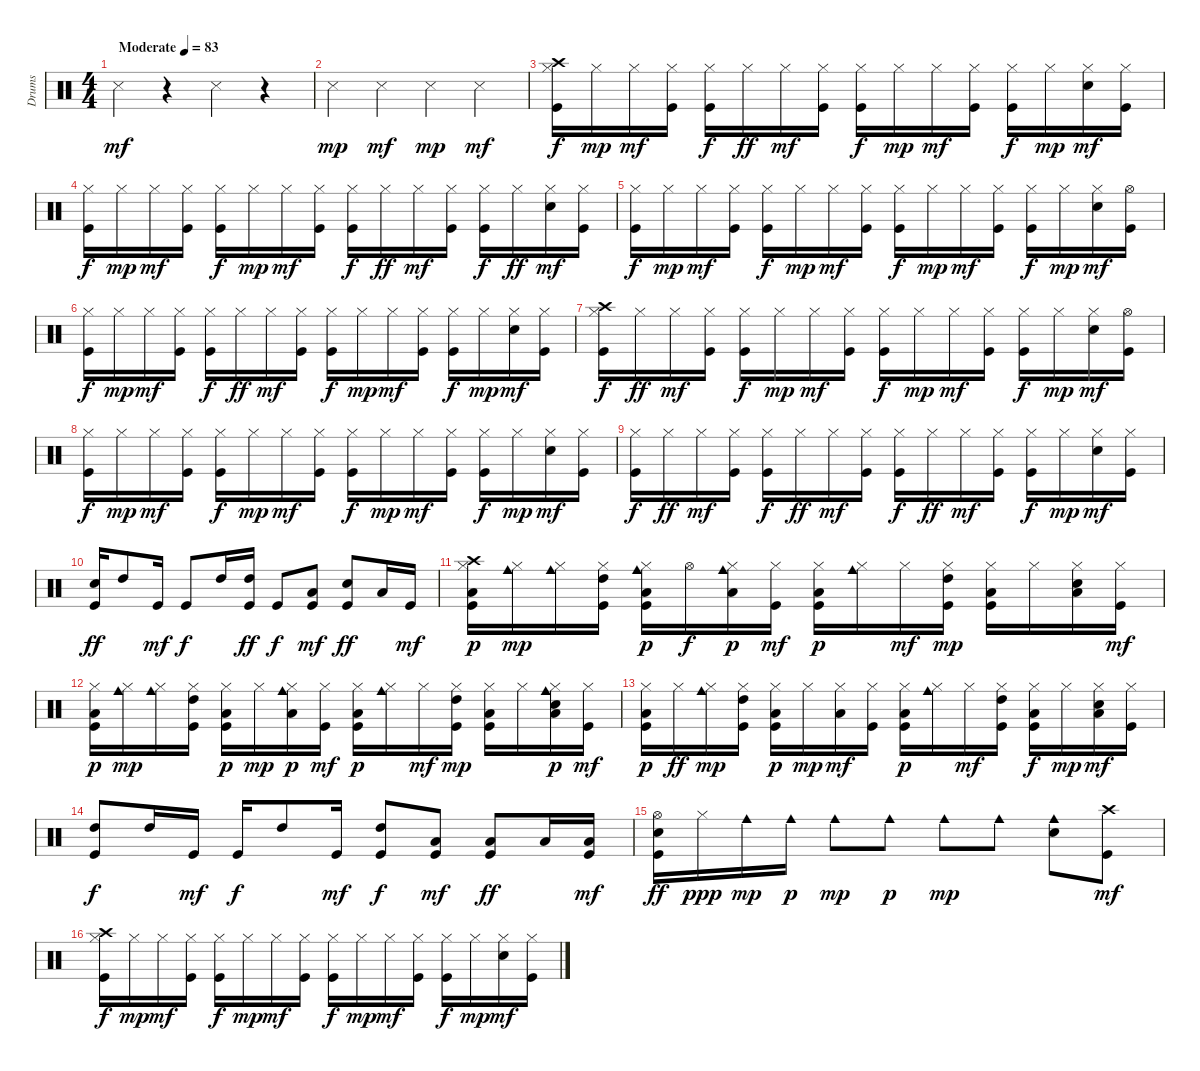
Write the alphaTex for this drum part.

\track ("Drums" "Drums") {instrument percussion}
\staff {score}
\articulation defaults
\ts (4 4)
\tempo (83 "Moderate")
\clef neutral
\ks c "Snare (side stick) 3".4{dy mf}
r.4 "Snare (side stick) 3".4 r.4 |
"Snare (side stick) 3".4{dy mp} "Snare (side stick) 3".4{dy mf} "Snare (side stick) 3".4{dy mp} "Snare (side stick) 3".4{dy mf} |
("Kick (hit)" "Hi-Hat (closed)" "Crash high (hit)").16{dy f} "Hi-Hat (closed)".16{dy mp} "Hi-Hat (closed)".16{dy mf} ("Kick (hit)" "Hi-Hat (closed)").16 ("Kick (hit)" "Hi-Hat (closed)").16{dy f} "Hi-Hat (closed)".16{dy ff} "Hi-Hat (closed)".16{dy mf} ("Kick (hit)" "Hi-Hat (closed)").16 ("Kick (hit)" "Hi-Hat (closed)").16{dy f} "Hi-Hat (closed)".16{dy mp} "Hi-Hat (closed)".16{dy mf} ("Kick (hit)" "Hi-Hat (closed)").16 ("Kick (hit)" "Hi-Hat (closed)").16{dy f} "Hi-Hat (closed)".16{dy mp} ("Snare (hit) 2" "Hi-Hat (closed)").16{dy mf} ("Kick (hit)" "Hi-Hat (closed)").16 |
("Kick (hit)" "Hi-Hat (closed)").16{dy f} "Hi-Hat (closed)".16{dy mp} "Hi-Hat (closed)".16{dy mf} ("Kick (hit)" "Hi-Hat (closed)").16 ("Kick (hit)" "Hi-Hat (closed)").16{dy f} "Hi-Hat (closed)".16{dy mp} "Hi-Hat (closed)".16{dy mf} ("Kick (hit)" "Hi-Hat (closed)").16 ("Kick (hit)" "Hi-Hat (closed)").16{dy f} "Hi-Hat (closed)".16{dy ff} "Hi-Hat (closed)".16{dy mf} ("Kick (hit)" "Hi-Hat (closed)").16 ("Kick (hit)" "Hi-Hat (closed)").16{dy f} "Hi-Hat (closed)".16{dy ff} ("Snare (hit) 2" "Hi-Hat (closed)").16{dy mf} ("Kick (hit)" "Hi-Hat (closed)").16 |
("Kick (hit)" "Hi-Hat (closed)").16{dy f} "Hi-Hat (closed)".16{dy mp} "Hi-Hat (closed)".16{dy mf} ("Kick (hit)" "Hi-Hat (closed)").16 ("Kick (hit)" "Hi-Hat (closed)").16{dy f} "Hi-Hat (closed)".16{dy mp} "Hi-Hat (closed)".16{dy mf} ("Kick (hit)" "Hi-Hat (closed)").16 ("Kick (hit)" "Hi-Hat (closed)").16{dy f} "Hi-Hat (closed)".16{dy mp} "Hi-Hat (closed)".16{dy mf} ("Kick (hit)" "Hi-Hat (closed)").16 ("Kick (hit)" "Hi-Hat (closed)").16{dy f} "Hi-Hat (closed)".16{dy mp} ("Snare (hit) 2" "Hi-Hat (closed)").16{dy mf} ("Kick (hit)" "Hi-Hat (open)").16 |
("Kick (hit)" "Hi-Hat (closed)").16{dy f} "Hi-Hat (closed)".16{dy mp} "Hi-Hat (closed)".16{dy mf} ("Kick (hit)" "Hi-Hat (closed)").16 ("Kick (hit)" "Hi-Hat (closed)").16{dy f} "Hi-Hat (closed)".16{dy ff} "Hi-Hat (closed)".16{dy mf} ("Kick (hit)" "Hi-Hat (closed)").16 ("Kick (hit)" "Hi-Hat (closed)").16{dy f} "Hi-Hat (closed)".16{dy mp} "Hi-Hat (closed)".16{dy mf} ("Kick (hit)" "Hi-Hat (closed)").16 ("Kick (hit)" "Hi-Hat (closed)").16{dy f} "Hi-Hat (closed)".16{dy mp} ("Snare (hit) 2" "Hi-Hat (closed)").16{dy mf} ("Kick (hit)" "Hi-Hat (closed)").16 |
("Kick (hit)" "Hi-Hat (closed)" "Crash high (hit)").16{dy f} "Hi-Hat (closed)".16{dy ff} "Hi-Hat (closed)".16{dy mf} ("Kick (hit)" "Hi-Hat (closed)").16 ("Kick (hit)" "Hi-Hat (closed)").16{dy f} "Hi-Hat (closed)".16{dy mp} "Hi-Hat (closed)".16{dy mf} ("Kick (hit)" "Hi-Hat (closed)").16 ("Kick (hit)" "Hi-Hat (closed)").16{dy f} "Hi-Hat (closed)".16{dy mp} "Hi-Hat (closed)".16{dy mf} ("Kick (hit)" "Hi-Hat (closed)").16 ("Kick (hit)" "Hi-Hat (closed)").16{dy f} "Hi-Hat (closed)".16{dy mp} ("Snare (hit) 2" "Hi-Hat (closed)").16{dy mf} ("Kick (hit)" "Hi-Hat (open)").16 |
("Kick (hit)" "Hi-Hat (closed)").16{dy f} "Hi-Hat (closed)".16{dy mp} "Hi-Hat (closed)".16{dy mf} ("Kick (hit)" "Hi-Hat (closed)").16 ("Kick (hit)" "Hi-Hat (closed)").16{dy f} "Hi-Hat (closed)".16{dy mp} "Hi-Hat (closed)".16{dy mf} ("Kick (hit)" "Hi-Hat (closed)").16 ("Kick (hit)" "Hi-Hat (closed)").16{dy f} "Hi-Hat (closed)".16{dy mp} "Hi-Hat (closed)".16{dy mf} ("Kick (hit)" "Hi-Hat (closed)").16 ("Kick (hit)" "Hi-Hat (closed)").16{dy f} "Hi-Hat (closed)".16{dy mp} ("Snare (hit) 2" "Hi-Hat (closed)").16{dy mf} ("Kick (hit)" "Hi-Hat (closed)").16 |
("Kick (hit)" "Hi-Hat (closed)").16{dy f} "Hi-Hat (closed)".16{dy ff} "Hi-Hat (closed)".16{dy mf} ("Kick (hit)" "Hi-Hat (closed)").16 ("Kick (hit)" "Hi-Hat (closed)").16{dy f} "Hi-Hat (closed)".16{dy ff} "Hi-Hat (closed)".16{dy mf} ("Kick (hit)" "Hi-Hat (closed)").16 ("Kick (hit)" "Hi-Hat (closed)").16{dy f} "Hi-Hat (closed)".16{dy ff} "Hi-Hat (closed)".16{dy mf} ("Kick (hit)" "Hi-Hat (closed)").16 ("Kick (hit)" "Hi-Hat (closed)").16{dy f} "Hi-Hat (closed)".16{dy mp} ("Snare (hit) 2" "Hi-Hat (closed)").16{dy mf} ("Kick (hit)" "Hi-Hat (closed)").16 |
("Kick (hit)" "Snare (hit) 2").16{dy ff} "High Tom (hit)".8 "Kick (hit)".16{dy mf} "Kick (hit)".8{dy f} "High Tom (hit)".16 ("Kick (hit)" "High Tom (hit)").16{dy ff} "Kick (hit)".8{dy f} ("Kick (hit)" "Low Tom (hit)").8{dy mf} ("Kick (hit)" "Snare (hit) 2").8{dy ff} "Low Tom (hit)".16 "Kick (hit)".16{dy mf} |
("Kick (hit)" "Hi-Hat (closed)" "Low Tom (hit)" "Crash high (hit)").16{dy p} ("Hi-Hat (closed)" "Cowbell medium (hit)").16{dy mp} ("Hi-Hat (closed)" "Cowbell medium (hit)").16 ("Kick (hit)" "Hi-Hat (closed)" "High Tom (hit)").16 ("Kick (hit)" "Hi-Hat (closed)" "Cowbell medium (hit)" "Low Tom (hit)").16{dy p} "Hi-Hat (open)".16{dy f} ("Hi-Hat (closed)" "Cowbell medium (hit)" "Low Floor Tom (hit)").16{dy p} ("Kick (hit)" "Hi-Hat (closed)").16{dy mf} ("Kick (hit)" "Hi-Hat (closed)" "Low Tom (hit)").16{dy p} ("Hi-Hat (closed)" "Cowbell medium (hit)").16 "Hi-Hat (closed)".16{dy mf} ("Kick (hit)" "Hi-Hat (closed)" "High Tom (hit)").16{dy mp} ("Kick (hit)" "Hi-Hat (closed)" "Low Tom (hit)").16 "Hi-Hat (closed)".16 ("Snare (hit) 2" "Hi-Hat (closed)" "Low Floor Tom (hit)").16 ("Kick (hit)" "Hi-Hat (closed)").16{dy mf} |
("Kick (hit)" "Hi-Hat (closed)" "Low Tom (hit)").16{dy p} ("Hi-Hat (closed)" "Cowbell medium (hit)").16{dy mp} ("Hi-Hat (closed)" "Cowbell medium (hit)").16 ("Kick (hit)" "Hi-Hat (closed)" "High Tom (hit)").16 ("Kick (hit)" "Hi-Hat (closed)" "Low Tom (hit)").16{dy p} "Hi-Hat (closed)".16{dy mp} ("Hi-Hat (closed)" "Cowbell medium (hit)" "Low Floor Tom (hit)").16{dy p} ("Kick (hit)" "Hi-Hat (closed)").16{dy mf} ("Kick (hit)" "Hi-Hat (closed)" "Low Tom (hit)").16{dy p} ("Hi-Hat (closed)" "Cowbell medium (hit)").16 "Hi-Hat (closed)".16{dy mf} ("Kick (hit)" "Hi-Hat (closed)" "High Tom (hit)").16{dy mp} ("Kick (hit)" "Hi-Hat (closed)" "Low Tom (hit)").16 "Hi-Hat (closed)".16 ("Snare (hit) 2" "Hi-Hat (closed)" "Cowbell medium (hit)" "Low Floor Tom (hit)").16{dy p} ("Kick (hit)" "Hi-Hat (closed)").16{dy mf} |
("Kick (hit)" "Hi-Hat (closed)" "Low Tom (hit)").16{dy p} "Hi-Hat (closed)".16{dy ff} ("Hi-Hat (closed)" "Cowbell medium (hit)").16{dy mp} ("Kick (hit)" "Hi-Hat (closed)" "High Tom (hit)").16 ("Kick (hit)" "Hi-Hat (closed)" "Low Tom (hit)").16{dy p} "Hi-Hat (closed)".16{dy mp} ("Hi-Hat (closed)" "Low Floor Tom (hit)").16{dy mf} ("Kick (hit)" "Hi-Hat (closed)").16 ("Kick (hit)" "Hi-Hat (closed)" "Low Tom (hit)").16{dy p} ("Hi-Hat (closed)" "Cowbell medium (hit)").16 "Hi-Hat (closed)".16{dy mf} ("Kick (hit)" "Hi-Hat (closed)" "High Tom (hit)").16 ("Kick (hit)" "Hi-Hat (closed)" "Low Tom (hit)").16{dy f} "Hi-Hat (closed)".16{dy mp} ("Snare (hit) 2" "Hi-Hat (closed)" "Low Floor Tom (hit)").16{dy mf} ("Kick (hit)" "Hi-Hat (closed)").16 |
("Kick (hit)" "High Tom (hit)").8{dy f} "High Tom (hit)".16 "Kick (hit)".16{dy mf} "Kick (hit)".16{dy f} "High Tom (hit)".8 "Kick (hit)".16{dy mf} ("Kick (hit)" "High Tom (hit)").8{dy f} ("Kick (hit)" "Low Tom (hit)").8{dy mf} ("Kick (hit)" "Low Tom (hit)").8{dy ff} "Low Floor Tom (hit)".16 ("Kick (hit)" "Low Floor Tom (hit)").16{dy mf} |
("Kick (hit)" "Snare (hit) 2" "Hi-Hat (open)").16{dy ff} "Hi-Hat (closed)".16{dy ppp} "Cowbell medium (hit)".16{dy mp} "Cowbell medium (hit)".16{dy p} "Cowbell medium (hit)".8{dy mp} "Cowbell medium (hit)".8{dy p} "Cowbell medium (hit)".8{dy mp} "Cowbell medium (hit)".8 ("Snare (hit) 2" "Cowbell medium (hit)").8 ("Kick (hit)" "Crash high (hit)").8{dy mf} |
("Kick (hit)" "Hi-Hat (closed)" "Crash high (hit)").16{dy f} "Hi-Hat (closed)".16{dy mp} "Hi-Hat (closed)".16{dy mf} ("Kick (hit)" "Hi-Hat (closed)").16 ("Kick (hit)" "Hi-Hat (closed)").16{dy f} "Hi-Hat (closed)".16{dy mp} "Hi-Hat (closed)".16{dy mf} ("Kick (hit)" "Hi-Hat (closed)").16 ("Kick (hit)" "Hi-Hat (closed)").16{dy f} "Hi-Hat (closed)".16{dy mp} "Hi-Hat (closed)".16{dy mf} ("Kick (hit)" "Hi-Hat (closed)").16 ("Kick (hit)" "Hi-Hat (closed)").16{dy f} "Hi-Hat (closed)".16{dy mp} ("Snare (hit) 2" "Hi-Hat (closed)").16{dy mf} ("Kick (hit)" "Hi-Hat (closed)").16
